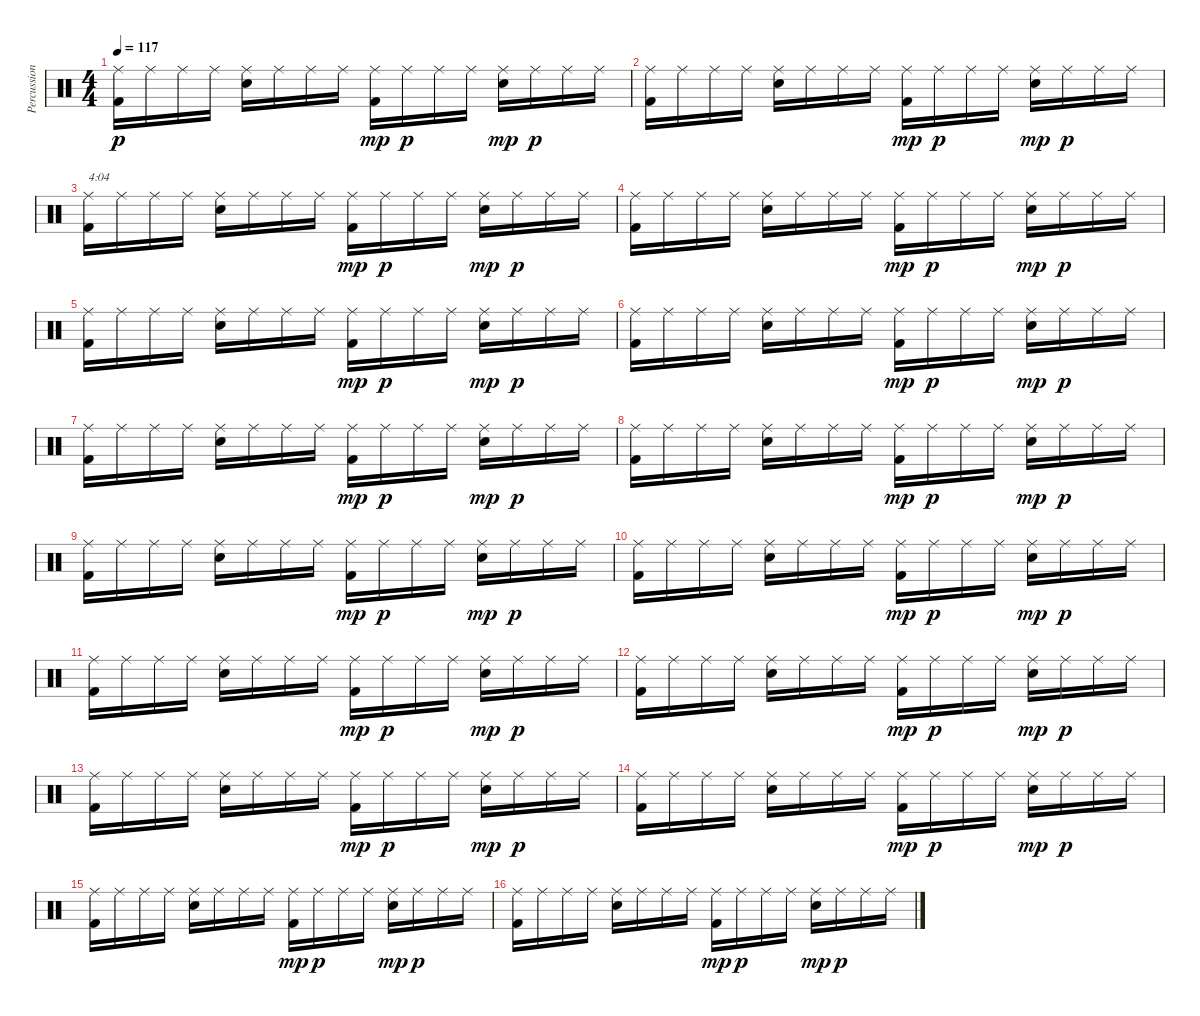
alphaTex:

\track ("Percussion" "Percussion") {instrument percussion}
\staff {score}
\articulation defaults
\ts (4 4)
\tempo 117
\clef neutral
\ks c
("Kick (hit) 2" "Ride (middle)").16{dy p} "Ride (middle)".16 "Ride (middle)".16 "Ride (middle)".16 ("Snare (hit) 2" "Ride (middle)").16 "Ride (middle)".16 "Ride (middle)".16 "Ride (middle)".16 ("Kick (hit) 2" "Ride (middle)").16{dy mp} "Ride (middle)".16{dy p} "Ride (middle)".16 "Ride (middle)".16 ("Snare (hit) 2" "Ride (middle)").16{dy mp} "Ride (middle)".16{dy p} "Ride (middle)".16 "Ride (middle)".16 |
("Kick (hit) 2" "Ride (middle)").16 "Ride (middle)".16 "Ride (middle)".16 "Ride (middle)".16 ("Snare (hit) 2" "Ride (middle)").16 "Ride (middle)".16 "Ride (middle)".16 "Ride (middle)".16 ("Kick (hit) 2" "Ride (middle)").16{dy mp} "Ride (middle)".16{dy p} "Ride (middle)".16 "Ride (middle)".16 ("Snare (hit) 2" "Ride (middle)").16{dy mp} "Ride (middle)".16{dy p} "Ride (middle)".16 "Ride (middle)".16 |
("Kick (hit) 2" "Ride (middle)").16{txt "4:04"} "Ride (middle)".16 "Ride (middle)".16 "Ride (middle)".16 ("Snare (hit) 2" "Ride (middle)").16 "Ride (middle)".16 "Ride (middle)".16 "Ride (middle)".16 ("Kick (hit) 2" "Ride (middle)").16{dy mp} "Ride (middle)".16{dy p} "Ride (middle)".16 "Ride (middle)".16 ("Snare (hit) 2" "Ride (middle)").16{dy mp} "Ride (middle)".16{dy p} "Ride (middle)".16 "Ride (middle)".16 |
("Kick (hit) 2" "Ride (middle)").16 "Ride (middle)".16 "Ride (middle)".16 "Ride (middle)".16 ("Snare (hit) 2" "Ride (middle)").16 "Ride (middle)".16 "Ride (middle)".16 "Ride (middle)".16 ("Kick (hit) 2" "Ride (middle)").16{dy mp} "Ride (middle)".16{dy p} "Ride (middle)".16 "Ride (middle)".16 ("Snare (hit) 2" "Ride (middle)").16{dy mp} "Ride (middle)".16{dy p} "Ride (middle)".16 "Ride (middle)".16 |
("Kick (hit) 2" "Ride (middle)").16 "Ride (middle)".16 "Ride (middle)".16 "Ride (middle)".16 ("Snare (hit) 2" "Ride (middle)").16 "Ride (middle)".16 "Ride (middle)".16 "Ride (middle)".16 ("Kick (hit) 2" "Ride (middle)").16{dy mp} "Ride (middle)".16{dy p} "Ride (middle)".16 "Ride (middle)".16 ("Snare (hit) 2" "Ride (middle)").16{dy mp} "Ride (middle)".16{dy p} "Ride (middle)".16 "Ride (middle)".16 |
("Kick (hit) 2" "Ride (middle)").16 "Ride (middle)".16 "Ride (middle)".16 "Ride (middle)".16 ("Snare (hit) 2" "Ride (middle)").16 "Ride (middle)".16 "Ride (middle)".16 "Ride (middle)".16 ("Kick (hit) 2" "Ride (middle)").16{dy mp} "Ride (middle)".16{dy p} "Ride (middle)".16 "Ride (middle)".16 ("Snare (hit) 2" "Ride (middle)").16{dy mp} "Ride (middle)".16{dy p} "Ride (middle)".16 "Ride (middle)".16 |
("Kick (hit) 2" "Ride (middle)").16 "Ride (middle)".16 "Ride (middle)".16 "Ride (middle)".16 ("Snare (hit) 2" "Ride (middle)").16 "Ride (middle)".16 "Ride (middle)".16 "Ride (middle)".16 ("Kick (hit) 2" "Ride (middle)").16{dy mp} "Ride (middle)".16{dy p} "Ride (middle)".16 "Ride (middle)".16 ("Snare (hit) 2" "Ride (middle)").16{dy mp} "Ride (middle)".16{dy p} "Ride (middle)".16 "Ride (middle)".16 |
("Kick (hit) 2" "Ride (middle)").16 "Ride (middle)".16 "Ride (middle)".16 "Ride (middle)".16 ("Snare (hit) 2" "Ride (middle)").16 "Ride (middle)".16 "Ride (middle)".16 "Ride (middle)".16 ("Kick (hit) 2" "Ride (middle)").16{dy mp} "Ride (middle)".16{dy p} "Ride (middle)".16 "Ride (middle)".16 ("Snare (hit) 2" "Ride (middle)").16{dy mp} "Ride (middle)".16{dy p} "Ride (middle)".16 "Ride (middle)".16 |
("Kick (hit) 2" "Ride (middle)").16 "Ride (middle)".16 "Ride (middle)".16 "Ride (middle)".16 ("Snare (hit) 2" "Ride (middle)").16 "Ride (middle)".16 "Ride (middle)".16 "Ride (middle)".16 ("Kick (hit) 2" "Ride (middle)").16{dy mp} "Ride (middle)".16{dy p} "Ride (middle)".16 "Ride (middle)".16 ("Snare (hit) 2" "Ride (middle)").16{dy mp} "Ride (middle)".16{dy p} "Ride (middle)".16 "Ride (middle)".16 |
("Kick (hit) 2" "Ride (middle)").16 "Ride (middle)".16 "Ride (middle)".16 "Ride (middle)".16 ("Snare (hit) 2" "Ride (middle)").16 "Ride (middle)".16 "Ride (middle)".16 "Ride (middle)".16 ("Kick (hit) 2" "Ride (middle)").16{dy mp} "Ride (middle)".16{dy p} "Ride (middle)".16 "Ride (middle)".16 ("Snare (hit) 2" "Ride (middle)").16{dy mp} "Ride (middle)".16{dy p} "Ride (middle)".16 "Ride (middle)".16 |
("Kick (hit) 2" "Ride (middle)").16 "Ride (middle)".16 "Ride (middle)".16 "Ride (middle)".16 ("Snare (hit) 2" "Ride (middle)").16 "Ride (middle)".16 "Ride (middle)".16 "Ride (middle)".16 ("Kick (hit) 2" "Ride (middle)").16{dy mp} "Ride (middle)".16{dy p} "Ride (middle)".16 "Ride (middle)".16 ("Snare (hit) 2" "Ride (middle)").16{dy mp} "Ride (middle)".16{dy p} "Ride (middle)".16 "Ride (middle)".16 |
("Kick (hit) 2" "Ride (middle)").16 "Ride (middle)".16 "Ride (middle)".16 "Ride (middle)".16 ("Snare (hit) 2" "Ride (middle)").16 "Ride (middle)".16 "Ride (middle)".16 "Ride (middle)".16 ("Kick (hit) 2" "Ride (middle)").16{dy mp} "Ride (middle)".16{dy p} "Ride (middle)".16 "Ride (middle)".16 ("Snare (hit) 2" "Ride (middle)").16{dy mp} "Ride (middle)".16{dy p} "Ride (middle)".16 "Ride (middle)".16 |
("Kick (hit) 2" "Ride (middle)").16 "Ride (middle)".16 "Ride (middle)".16 "Ride (middle)".16 ("Snare (hit) 2" "Ride (middle)").16 "Ride (middle)".16 "Ride (middle)".16 "Ride (middle)".16 ("Kick (hit) 2" "Ride (middle)").16{dy mp} "Ride (middle)".16{dy p} "Ride (middle)".16 "Ride (middle)".16 ("Snare (hit) 2" "Ride (middle)").16{dy mp} "Ride (middle)".16{dy p} "Ride (middle)".16 "Ride (middle)".16 |
("Kick (hit) 2" "Ride (middle)").16 "Ride (middle)".16 "Ride (middle)".16 "Ride (middle)".16 ("Snare (hit) 2" "Ride (middle)").16 "Ride (middle)".16 "Ride (middle)".16 "Ride (middle)".16 ("Kick (hit) 2" "Ride (middle)").16{dy mp} "Ride (middle)".16{dy p} "Ride (middle)".16 "Ride (middle)".16 ("Snare (hit) 2" "Ride (middle)").16{dy mp} "Ride (middle)".16{dy p} "Ride (middle)".16 "Ride (middle)".16 |
("Kick (hit) 2" "Ride (middle)").16 "Ride (middle)".16 "Ride (middle)".16 "Ride (middle)".16 ("Snare (hit) 2" "Ride (middle)").16 "Ride (middle)".16 "Ride (middle)".16 "Ride (middle)".16 ("Kick (hit) 2" "Ride (middle)").16{dy mp} "Ride (middle)".16{dy p} "Ride (middle)".16 "Ride (middle)".16 ("Snare (hit) 2" "Ride (middle)").16{dy mp} "Ride (middle)".16{dy p} "Ride (middle)".16 "Ride (middle)".16 |
("Kick (hit) 2" "Ride (middle)").16 "Ride (middle)".16 "Ride (middle)".16 "Ride (middle)".16 ("Snare (hit) 2" "Ride (middle)").16 "Ride (middle)".16 "Ride (middle)".16 "Ride (middle)".16 ("Kick (hit) 2" "Ride (middle)").16{dy mp} "Ride (middle)".16{dy p} "Ride (middle)".16 "Ride (middle)".16 ("Snare (hit) 2" "Ride (middle)").16{dy mp} "Ride (middle)".16{dy p} "Ride (middle)".16 "Ride (middle)".16
